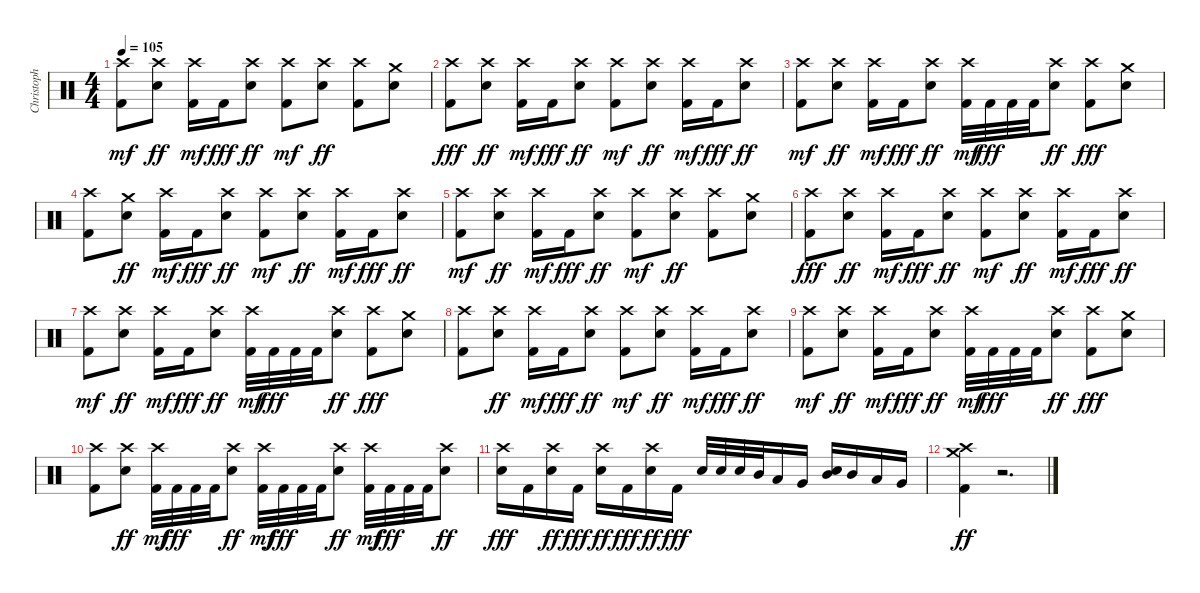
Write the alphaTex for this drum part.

\track ("Christoph \"Doom\" Schneider" "Christoph ") {instrument percussion}
\staff {score}
\articulation defaults
\ts (4 4)
\tempo 105
\clef neutral
\ks c
("Kick (hit) 2" "Crash high (hit)").8{dy mf} ("Crash high (hit)" "Electric Snare (hit)").8{dy ff} ("Kick (hit) 2" "Crash high (hit)").16{dy mf} "Kick (hit) 2".16{dy fff} ("Crash high (hit)" "Electric Snare (hit)").8{dy ff} ("Kick (hit) 2" "Crash high (hit)").8{dy mf} ("Crash high (hit)" "Electric Snare (hit)").8{dy ff} ("Kick (hit) 2" "Crash high (hit)").8 ("Electric Snare (hit)" "Crash medium (hit)").8 |
("Kick (hit) 2" "Crash high (hit)").8{dy fff} ("Crash high (hit)" "Electric Snare (hit)").8{dy ff} ("Kick (hit) 2" "Crash high (hit)").16{dy mf} "Kick (hit) 2".16{dy fff} ("Crash high (hit)" "Electric Snare (hit)").8{dy ff} ("Kick (hit) 2" "Crash high (hit)").8{dy mf} ("Crash high (hit)" "Electric Snare (hit)").8{dy ff} ("Kick (hit) 2" "Crash high (hit)").16{dy mf} "Kick (hit) 2".16{dy fff} ("Crash high (hit)" "Electric Snare (hit)").8{dy ff} |
("Kick (hit) 2" "Crash high (hit)").8{dy mf} ("Crash high (hit)" "Electric Snare (hit)").8{dy ff} ("Kick (hit) 2" "Crash high (hit)").16{dy mf} "Kick (hit) 2".16{dy fff} ("Crash high (hit)" "Electric Snare (hit)").8{dy ff} ("Kick (hit) 2" "Crash high (hit)").32{dy mf} "Kick (hit) 2".32{dy fff} "Kick (hit) 2".32 "Kick (hit) 2".32 ("Crash high (hit)" "Electric Snare (hit)").8{dy ff} ("Kick (hit) 2" "Crash high (hit)").8{dy fff} ("Electric Snare (hit)" "Crash medium (hit)").8 |
("Kick (hit) 2" "Crash high (hit)").8 ("Electric Snare (hit)" "Crash medium (hit)").8{dy ff} ("Kick (hit) 2" "Crash high (hit)").16{dy mf} "Kick (hit) 2".16{dy fff} ("Crash high (hit)" "Electric Snare (hit)").8{dy ff} ("Kick (hit) 2" "Crash high (hit)").8{dy mf} ("Crash high (hit)" "Electric Snare (hit)").8{dy ff} ("Kick (hit) 2" "Crash high (hit)").16{dy mf} "Kick (hit) 2".16{dy fff} ("Crash high (hit)" "Electric Snare (hit)").8{dy ff} |
("Kick (hit) 2" "Crash high (hit)").8{dy mf} ("Crash high (hit)" "Electric Snare (hit)").8{dy ff} ("Kick (hit) 2" "Crash high (hit)").16{dy mf} "Kick (hit) 2".16{dy fff} ("Crash high (hit)" "Electric Snare (hit)").8{dy ff} ("Kick (hit) 2" "Crash high (hit)").8{dy mf} ("Crash high (hit)" "Electric Snare (hit)").8{dy ff} ("Kick (hit) 2" "Crash high (hit)").8 ("Electric Snare (hit)" "Crash medium (hit)").8 |
("Kick (hit) 2" "Crash high (hit)").8{dy fff} ("Crash high (hit)" "Electric Snare (hit)").8{dy ff} ("Kick (hit) 2" "Crash high (hit)").16{dy mf} "Kick (hit) 2".16{dy fff} ("Crash high (hit)" "Electric Snare (hit)").8{dy ff} ("Kick (hit) 2" "Crash high (hit)").8{dy mf} ("Crash high (hit)" "Electric Snare (hit)").8{dy ff} ("Kick (hit) 2" "Crash high (hit)").16{dy mf} "Kick (hit) 2".16{dy fff} ("Crash high (hit)" "Electric Snare (hit)").8{dy ff} |
("Kick (hit) 2" "Crash high (hit)").8{dy mf} ("Crash high (hit)" "Electric Snare (hit)").8{dy ff} ("Kick (hit) 2" "Crash high (hit)").16{dy mf} "Kick (hit) 2".16{dy fff} ("Crash high (hit)" "Electric Snare (hit)").8{dy ff} ("Kick (hit) 2" "Crash high (hit)").32{dy mf} "Kick (hit) 2".32{dy fff} "Kick (hit) 2".32 "Kick (hit) 2".32 ("Crash high (hit)" "Electric Snare (hit)").8{dy ff} ("Kick (hit) 2" "Crash high (hit)").8{dy fff} ("Electric Snare (hit)" "Crash medium (hit)").8 |
("Kick (hit) 2" "Crash high (hit)").8 ("Crash high (hit)" "Electric Snare (hit)").8{dy ff} ("Kick (hit) 2" "Crash high (hit)").16{dy mf} "Kick (hit) 2".16{dy fff} ("Crash high (hit)" "Electric Snare (hit)").8{dy ff} ("Kick (hit) 2" "Crash high (hit)").8{dy mf} ("Crash high (hit)" "Electric Snare (hit)").8{dy ff} ("Kick (hit) 2" "Crash high (hit)").16{dy mf} "Kick (hit) 2".16{dy fff} ("Crash high (hit)" "Electric Snare (hit)").8{dy ff} |
("Kick (hit) 2" "Crash high (hit)").8{dy mf} ("Crash high (hit)" "Electric Snare (hit)").8{dy ff} ("Kick (hit) 2" "Crash high (hit)").16{dy mf} "Kick (hit) 2".16{dy fff} ("Crash high (hit)" "Electric Snare (hit)").8{dy ff} ("Kick (hit) 2" "Crash high (hit)").32{dy mf} "Kick (hit) 2".32{dy fff} "Kick (hit) 2".32 "Kick (hit) 2".32 ("Crash high (hit)" "Electric Snare (hit)").8{dy ff} ("Kick (hit) 2" "Crash high (hit)").8{dy fff} ("Electric Snare (hit)" "Crash medium (hit)").8 |
("Kick (hit) 2" "Crash high (hit)").8 ("Crash high (hit)" "Electric Snare (hit)").8{dy ff} ("Kick (hit) 2" "Crash high (hit)").32{dy mf} "Kick (hit) 2".32{dy fff} "Kick (hit) 2".32 "Kick (hit) 2".32 ("Crash high (hit)" "Electric Snare (hit)").8{dy ff} ("Kick (hit) 2" "Crash high (hit)").32{dy mf} "Kick (hit) 2".32{dy fff} "Kick (hit) 2".32 "Kick (hit) 2".32 ("Crash high (hit)" "Electric Snare (hit)").8{dy ff} ("Kick (hit) 2" "Crash high (hit)").32{dy mf} "Kick (hit) 2".32{dy fff} "Kick (hit) 2".32 "Kick (hit) 2".32 ("Crash high (hit)" "Electric Snare (hit)").8{dy ff} |
("Electric Snare (hit)" "Crash high (hit)").16{dy fff} "Kick (hit) 2".16 ("Electric Snare (hit)" "Crash high (hit)").16{dy ff} "Kick (hit) 2".16{dy fff} ("Electric Snare (hit)" "Crash high (hit)").16{dy ff} "Kick (hit) 2".16{dy fff} ("Electric Snare (hit)" "Crash high (hit)").16{dy ff} "Kick (hit) 2".16{dy fff} "Electric Snare (hit)".32 "Electric Snare (hit)".32 "Electric Snare (hit)".32 "Mid Tom (hit)".32 "Low Tom (hit)".16 "Very Low Tom (hit)".16 ("Electric Snare (hit)" "Mid Tom (hit)").16 "Mid Tom (hit)".16 "Low Tom (hit)".16 "Very Low Tom (hit)".16 |
("Kick (hit) 2" "Crash high (hit)" "Crash medium (hit)").4{dy ff} r.2{d}
